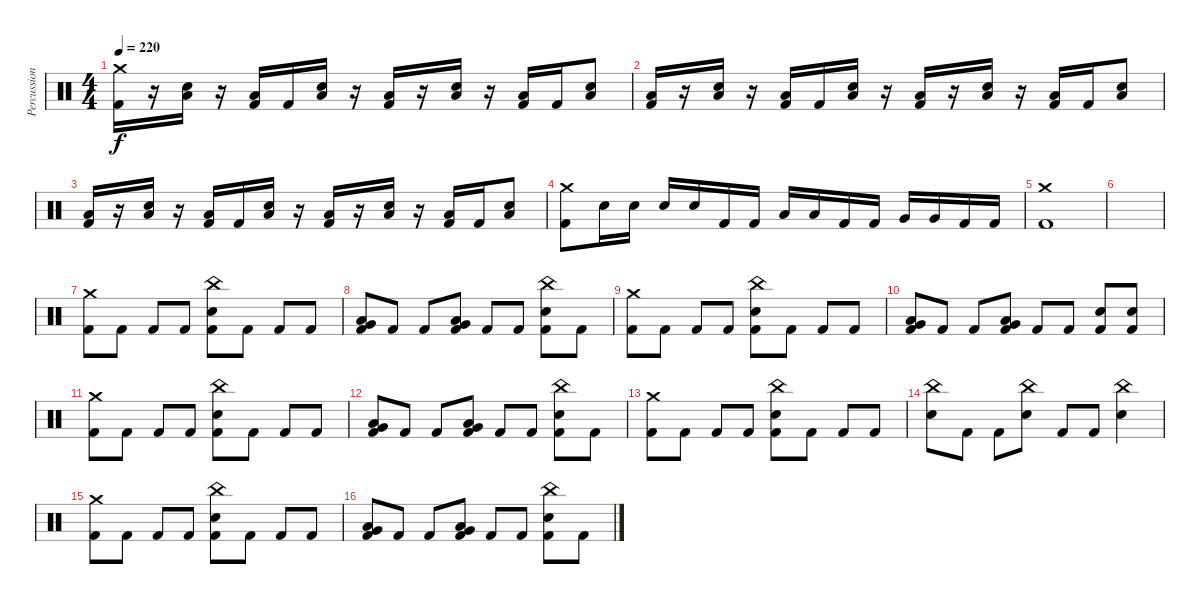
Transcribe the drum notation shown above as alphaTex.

\track ("Percussion" "Percussion") {solo instrument percussion}
\staff {score}
\articulation defaults
\ts (4 4)
\tempo 220
\clef neutral
\ks c
("Crash medium (hit)" "Kick (hit) 2").16{dy f} r.16 ("Electric Snare (hit)" "Low Floor Tom (hit)").16 r.16 ("Low Floor Tom (hit)" "Kick (hit) 2").16 "Kick (hit) 2".16 ("Electric Snare (hit)" "Low Floor Tom (hit)").16 r.16 ("Low Floor Tom (hit)" "Kick (hit) 2").16 r.16 ("Electric Snare (hit)" "Low Floor Tom (hit)").16 r.16 ("Low Floor Tom (hit)" "Kick (hit) 2").16 "Kick (hit) 2".16 ("Electric Snare (hit)" "Low Floor Tom (hit)").8 |
("Low Floor Tom (hit)" "Kick (hit) 2").16 r.16 ("Electric Snare (hit)" "Low Floor Tom (hit)").16 r.16 ("Low Floor Tom (hit)" "Kick (hit) 2").16 "Kick (hit) 2".16 ("Electric Snare (hit)" "Low Floor Tom (hit)").16 r.16 ("Low Floor Tom (hit)" "Kick (hit) 2").16 r.16 ("Electric Snare (hit)" "Low Floor Tom (hit)").16 r.16 ("Low Floor Tom (hit)" "Kick (hit) 2").16 "Kick (hit) 2".16 ("Electric Snare (hit)" "Low Floor Tom (hit)").8 |
("Low Floor Tom (hit)" "Kick (hit) 2").16 r.16 ("Electric Snare (hit)" "Low Floor Tom (hit)").16 r.16 ("Low Floor Tom (hit)" "Kick (hit) 2").16 "Kick (hit) 2".16 ("Electric Snare (hit)" "Low Floor Tom (hit)").16 r.16 ("Low Floor Tom (hit)" "Kick (hit) 2").16 r.16 ("Electric Snare (hit)" "Low Floor Tom (hit)").16 r.16 ("Low Floor Tom (hit)" "Kick (hit) 2").16 "Kick (hit) 2".16 ("Electric Snare (hit)" "Low Floor Tom (hit)").8 |
("Crash medium (hit)" "Kick (hit) 2").8 "Electric Snare (hit)".16 "Electric Snare (hit)".16 "Electric Snare (hit)".16 "Electric Snare (hit)".16 "Kick (hit) 2".16 "Kick (hit) 2".16 "Low Tom (hit)".16 "Low Tom (hit)".16 "Kick (hit) 2".16 "Kick (hit) 2".16 "Very Low Tom (hit)".16 "Very Low Tom (hit)".16 "Kick (hit) 2".16 "Kick (hit) 2".16 |
("Crash medium (hit)" "Kick (hit) 2").1 |
|
("Crash medium (hit)" "Kick (hit) 2").8 "Kick (hit) 2".8 "Kick (hit) 2".8 "Kick (hit) 2".8 ("China (hit)" "Electric Snare (hit)" "Kick (hit) 2").8 "Kick (hit) 2".8 "Kick (hit) 2".8 "Kick (hit) 2".8 |
("Low Floor Tom (hit)" "Very Low Tom (hit)" "Kick (hit) 2").8 "Kick (hit) 2".8 "Kick (hit) 2".8 ("Very Low Tom (hit)" "Low Floor Tom (hit)" "Kick (hit) 2").8 "Kick (hit) 2".8 "Kick (hit) 2".8 ("China (hit)" "Electric Snare (hit)" "Kick (hit) 2").8 "Kick (hit) 2".8 |
("Crash medium (hit)" "Kick (hit) 2").8 "Kick (hit) 2".8 "Kick (hit) 2".8 "Kick (hit) 2".8 ("China (hit)" "Electric Snare (hit)" "Kick (hit) 2").8 "Kick (hit) 2".8 "Kick (hit) 2".8 "Kick (hit) 2".8 |
("Low Floor Tom (hit)" "Very Low Tom (hit)" "Kick (hit) 2").8 "Kick (hit) 2".8 "Kick (hit) 2".8 ("Very Low Tom (hit)" "Low Floor Tom (hit)" "Kick (hit) 2").8 "Kick (hit) 2".8 "Kick (hit) 2".8 ("Electric Snare (hit)" "Kick (hit) 2").8 ("Electric Snare (hit)" "Kick (hit) 2").8 |
("Crash medium (hit)" "Kick (hit) 2").8 "Kick (hit) 2".8 "Kick (hit) 2".8 "Kick (hit) 2".8 ("China (hit)" "Electric Snare (hit)" "Kick (hit) 2").8 "Kick (hit) 2".8 "Kick (hit) 2".8 "Kick (hit) 2".8 |
("Low Floor Tom (hit)" "Very Low Tom (hit)" "Kick (hit) 2").8 "Kick (hit) 2".8 "Kick (hit) 2".8 ("Very Low Tom (hit)" "Low Floor Tom (hit)" "Kick (hit) 2").8 "Kick (hit) 2".8 "Kick (hit) 2".8 ("China (hit)" "Electric Snare (hit)" "Kick (hit) 2").8 "Kick (hit) 2".8 |
("Crash medium (hit)" "Kick (hit) 2").8 "Kick (hit) 2".8 "Kick (hit) 2".8 "Kick (hit) 2".8 ("China (hit)" "Electric Snare (hit)" "Kick (hit) 2").8 "Kick (hit) 2".8 "Kick (hit) 2".8 "Kick (hit) 2".8 |
("China (hit)" "Electric Snare (hit)").8 "Kick (hit) 2".8 "Kick (hit) 2".8 ("China (hit)" "Electric Snare (hit)").8 "Kick (hit) 2".8 "Kick (hit) 2".8 ("China (hit)" "Electric Snare (hit)").4 |
("Crash medium (hit)" "Kick (hit) 2").8 "Kick (hit) 2".8 "Kick (hit) 2".8 "Kick (hit) 2".8 ("China (hit)" "Electric Snare (hit)" "Kick (hit) 2").8 "Kick (hit) 2".8 "Kick (hit) 2".8 "Kick (hit) 2".8 |
("Low Floor Tom (hit)" "Very Low Tom (hit)" "Kick (hit) 2").8 "Kick (hit) 2".8 "Kick (hit) 2".8 ("Very Low Tom (hit)" "Low Floor Tom (hit)" "Kick (hit) 2").8 "Kick (hit) 2".8 "Kick (hit) 2".8 ("China (hit)" "Electric Snare (hit)" "Kick (hit) 2").8 "Kick (hit) 2".8
